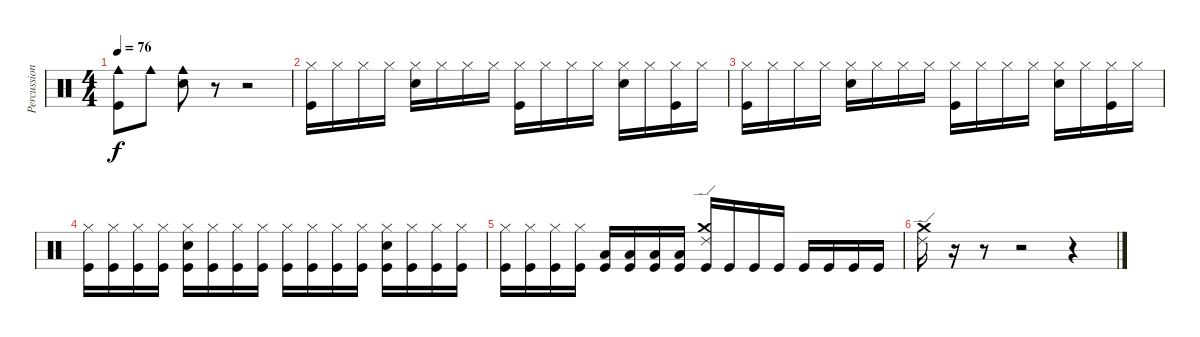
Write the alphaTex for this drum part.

\track ("Percussion" "Percussion") {instrument percussion}
\staff {score}
\articulation defaults
\ts (4 4)
\tempo 76
\clef neutral
\ks c
("Cowbell medium (hit)" "Kick (hit)").8{dy f} "Cowbell medium (hit)".8 ("Cowbell medium (hit)" "Snare (hit) 2").8 r.8 r.2 |
("Hi-Hat (closed)" "Kick (hit)").16 "Hi-Hat (closed)".16 "Hi-Hat (closed)".16 "Hi-Hat (closed)".16 ("Hi-Hat (closed)" "Snare (hit) 2").16 "Hi-Hat (closed)".16 "Hi-Hat (closed)".16 "Hi-Hat (closed)".16 ("Hi-Hat (closed)" "Kick (hit)").16 "Hi-Hat (closed)".16 "Hi-Hat (closed)".16 "Hi-Hat (closed)".16 ("Hi-Hat (closed)" "Snare (hit) 2").16 "Hi-Hat (closed)".16 ("Hi-Hat (closed)" "Kick (hit)").16 "Hi-Hat (closed)".16 |
("Hi-Hat (closed)" "Kick (hit)").16 "Hi-Hat (closed)".16 "Hi-Hat (closed)".16 "Hi-Hat (closed)".16 ("Hi-Hat (closed)" "Snare (hit) 2").16 "Hi-Hat (closed)".16 "Hi-Hat (closed)".16 "Hi-Hat (closed)".16 ("Hi-Hat (closed)" "Kick (hit)").16 "Hi-Hat (closed)".16 "Hi-Hat (closed)".16 "Hi-Hat (closed)".16 ("Hi-Hat (closed)" "Snare (hit) 2").16 "Hi-Hat (closed)".16 ("Hi-Hat (closed)" "Kick (hit)").16 "Hi-Hat (closed)".16 |
("Hi-Hat (closed)" "Kick (hit)").16 ("Hi-Hat (closed)" "Kick (hit)").16 ("Hi-Hat (closed)" "Kick (hit)").16 ("Hi-Hat (closed)" "Kick (hit)").16 ("Hi-Hat (closed)" "Snare (hit) 2" "Kick (hit)").16 ("Hi-Hat (closed)" "Kick (hit)").16 ("Hi-Hat (closed)" "Kick (hit)").16 ("Hi-Hat (closed)" "Kick (hit)").16 ("Hi-Hat (closed)" "Kick (hit)").16 ("Hi-Hat (closed)" "Kick (hit)").16 ("Hi-Hat (closed)" "Kick (hit)").16 ("Hi-Hat (closed)" "Kick (hit)").16 ("Hi-Hat (closed)" "Snare (hit) 2" "Kick (hit)").16 ("Hi-Hat (closed)" "Kick (hit)").16 ("Hi-Hat (closed)" "Kick (hit)").16 ("Hi-Hat (closed)" "Kick (hit)").16 |
("Hi-Hat (closed)" "Kick (hit)").16 ("Hi-Hat (closed)" "Kick (hit)").16 ("Hi-Hat (closed)" "Kick (hit)").16 ("Hi-Hat (closed)" "Kick (hit)").16 ("Low Tom (hit)" "Kick (hit)").16 ("Low Tom (hit)" "Kick (hit)").16 ("Low Floor Tom (hit)" "Kick (hit)").16 ("Low Floor Tom (hit)" "Kick (hit)").16 ("Crash medium (hit)" "Ride (edge) 2" "Kick (hit)").16 "Kick (hit)".16 "Kick (hit)".16 "Kick (hit)".16 "Kick (hit)".16 "Kick (hit)".16 "Kick (hit)".16 "Kick (hit)".16 |
("Crash medium (hit)" "Ride (edge) 2").16 r.16 r.8 r.2 r.4
